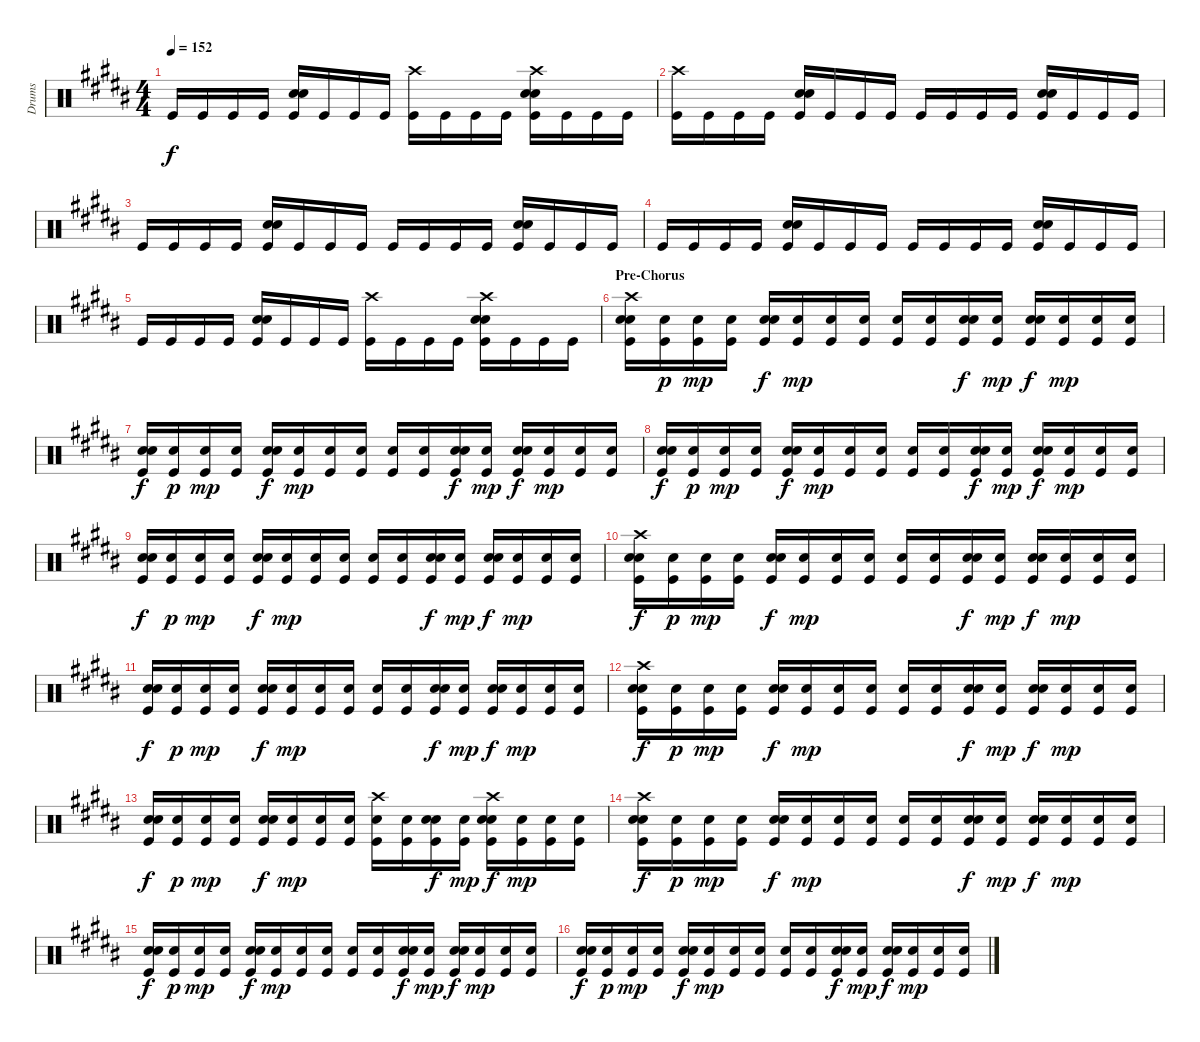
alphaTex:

\track ("Drums" "Drums") {instrument percussion}
\staff {score}
\articulation defaults
\ts (4 4)
\tempo 152
\clef neutral
\ks b "Kick (hit)".16{dy f} "Kick (hit)".16 "Kick (hit)".16 "Kick (hit)".16
("Snare (hit) 2" "Electric Snare (hit)" "Kick (hit)").16 "Kick (hit)".16 "Kick (hit)".16 "Kick (hit)".16 ("Crash high (hit)" "Kick (hit)").16 "Kick (hit)".16 "Kick (hit)".16 "Kick (hit)".16 ("Crash high (hit)" "Snare (hit) 2" "Electric Snare (hit)" "Kick (hit)").16 "Kick (hit)".16 "Kick (hit)".16 "Kick (hit)".16 |
("Crash high (hit)" "Kick (hit)").16 "Kick (hit)".16 "Kick (hit)".16 "Kick (hit)".16 ("Snare (hit) 2" "Electric Snare (hit)" "Kick (hit)").16 "Kick (hit)".16 "Kick (hit)".16 "Kick (hit)".16 "Kick (hit)".16 "Kick (hit)".16 "Kick (hit)".16 "Kick (hit)".16 ("Snare (hit) 2" "Electric Snare (hit)" "Kick (hit)").16 "Kick (hit)".16 "Kick (hit)".16 "Kick (hit)".16 |
"Kick (hit)".16 "Kick (hit)".16 "Kick (hit)".16 "Kick (hit)".16 ("Snare (hit) 2" "Electric Snare (hit)" "Kick (hit)").16 "Kick (hit)".16 "Kick (hit)".16 "Kick (hit)".16 "Kick (hit)".16 "Kick (hit)".16 "Kick (hit)".16 "Kick (hit)".16 ("Snare (hit) 2" "Electric Snare (hit)" "Kick (hit)").16 "Kick (hit)".16 "Kick (hit)".16 "Kick (hit)".16 |
"Kick (hit)".16 "Kick (hit)".16 "Kick (hit)".16 "Kick (hit)".16 ("Snare (hit) 2" "Electric Snare (hit)" "Kick (hit)").16 "Kick (hit)".16 "Kick (hit)".16 "Kick (hit)".16 "Kick (hit)".16 "Kick (hit)".16 "Kick (hit)".16 "Kick (hit)".16 ("Snare (hit) 2" "Electric Snare (hit)" "Kick (hit)").16 "Kick (hit)".16 "Kick (hit)".16 "Kick (hit)".16 |
"Kick (hit)".16 "Kick (hit)".16 "Kick (hit)".16 "Kick (hit)".16 ("Snare (hit) 2" "Electric Snare (hit)" "Kick (hit)").16 "Kick (hit)".16 "Kick (hit)".16 "Kick (hit)".16 ("Crash high (hit)" "Kick (hit)").16 "Kick (hit)".16 "Kick (hit)".16 "Kick (hit)".16 ("Crash high (hit)" "Snare (hit) 2" "Electric Snare (hit)" "Kick (hit)").16 "Kick (hit)".16 "Kick (hit)".16 "Kick (hit)".16 |
\section ("" "Pre-Chorus")
("Crash high (hit)" "Electric Snare (hit)" "Snare (hit) 2" "Kick (hit)").16 ("Snare (hit) 2" "Kick (hit)").16{dy p} ("Snare (hit) 2" "Kick (hit)").16{dy mp} ("Snare (hit) 2" "Kick (hit)").16 ("Electric Snare (hit)" "Snare (hit) 2" "Kick (hit)").16{dy f} ("Snare (hit) 2" "Kick (hit)").16{dy mp} ("Snare (hit) 2" "Kick (hit)").16 ("Snare (hit) 2" "Kick (hit)").16 ("Snare (hit) 2" "Kick (hit)").16 ("Snare (hit) 2" "Kick (hit)").16 ("Electric Snare (hit)" "Snare (hit) 2" "Kick (hit)").16{dy f} ("Snare (hit) 2" "Kick (hit)").16{dy mp} ("Electric Snare (hit)" "Snare (hit) 2" "Kick (hit)").16{dy f} ("Snare (hit) 2" "Kick (hit)").16{dy mp} ("Snare (hit) 2" "Kick (hit)").16 ("Snare (hit) 2" "Kick (hit)").16 |
("Electric Snare (hit)" "Snare (hit) 2" "Kick (hit)").16{dy f} ("Snare (hit) 2" "Kick (hit)").16{dy p} ("Snare (hit) 2" "Kick (hit)").16{dy mp} ("Snare (hit) 2" "Kick (hit)").16 ("Electric Snare (hit)" "Snare (hit) 2" "Kick (hit)").16{dy f} ("Snare (hit) 2" "Kick (hit)").16{dy mp} ("Snare (hit) 2" "Kick (hit)").16 ("Snare (hit) 2" "Kick (hit)").16 ("Snare (hit) 2" "Kick (hit)").16 ("Snare (hit) 2" "Kick (hit)").16 ("Electric Snare (hit)" "Snare (hit) 2" "Kick (hit)").16{dy f} ("Snare (hit) 2" "Kick (hit)").16{dy mp} ("Electric Snare (hit)" "Snare (hit) 2" "Kick (hit)").16{dy f} ("Snare (hit) 2" "Kick (hit)").16{dy mp} ("Snare (hit) 2" "Kick (hit)").16 ("Snare (hit) 2" "Kick (hit)").16 |
("Electric Snare (hit)" "Snare (hit) 2" "Kick (hit)").16{dy f} ("Snare (hit) 2" "Kick (hit)").16{dy p} ("Snare (hit) 2" "Kick (hit)").16{dy mp} ("Snare (hit) 2" "Kick (hit)").16 ("Electric Snare (hit)" "Snare (hit) 2" "Kick (hit)").16{dy f} ("Snare (hit) 2" "Kick (hit)").16{dy mp} ("Snare (hit) 2" "Kick (hit)").16 ("Snare (hit) 2" "Kick (hit)").16 ("Snare (hit) 2" "Kick (hit)").16 ("Snare (hit) 2" "Kick (hit)").16 ("Electric Snare (hit)" "Snare (hit) 2" "Kick (hit)").16{dy f} ("Snare (hit) 2" "Kick (hit)").16{dy mp} ("Electric Snare (hit)" "Snare (hit) 2" "Kick (hit)").16{dy f} ("Snare (hit) 2" "Kick (hit)").16{dy mp} ("Snare (hit) 2" "Kick (hit)").16 ("Snare (hit) 2" "Kick (hit)").16 |
("Electric Snare (hit)" "Snare (hit) 2" "Kick (hit)").16{dy f} ("Snare (hit) 2" "Kick (hit)").16{dy p} ("Snare (hit) 2" "Kick (hit)").16{dy mp} ("Snare (hit) 2" "Kick (hit)").16 ("Electric Snare (hit)" "Snare (hit) 2" "Kick (hit)").16{dy f} ("Snare (hit) 2" "Kick (hit)").16{dy mp} ("Snare (hit) 2" "Kick (hit)").16 ("Snare (hit) 2" "Kick (hit)").16 ("Snare (hit) 2" "Kick (hit)").16 ("Snare (hit) 2" "Kick (hit)").16 ("Electric Snare (hit)" "Snare (hit) 2" "Kick (hit)").16{dy f} ("Snare (hit) 2" "Kick (hit)").16{dy mp} ("Electric Snare (hit)" "Snare (hit) 2" "Kick (hit)").16{dy f} ("Snare (hit) 2" "Kick (hit)").16{dy mp} ("Snare (hit) 2" "Kick (hit)").16 ("Snare (hit) 2" "Kick (hit)").16 |
("Crash high (hit)" "Electric Snare (hit)" "Snare (hit) 2" "Kick (hit)").16{dy f} ("Snare (hit) 2" "Kick (hit)").16{dy p} ("Snare (hit) 2" "Kick (hit)").16{dy mp} ("Snare (hit) 2" "Kick (hit)").16 ("Electric Snare (hit)" "Snare (hit) 2" "Kick (hit)").16{dy f} ("Snare (hit) 2" "Kick (hit)").16{dy mp} ("Snare (hit) 2" "Kick (hit)").16 ("Snare (hit) 2" "Kick (hit)").16 ("Snare (hit) 2" "Kick (hit)").16 ("Snare (hit) 2" "Kick (hit)").16 ("Electric Snare (hit)" "Snare (hit) 2" "Kick (hit)").16{dy f} ("Snare (hit) 2" "Kick (hit)").16{dy mp} ("Electric Snare (hit)" "Snare (hit) 2" "Kick (hit)").16{dy f} ("Snare (hit) 2" "Kick (hit)").16{dy mp} ("Snare (hit) 2" "Kick (hit)").16 ("Snare (hit) 2" "Kick (hit)").16 |
("Electric Snare (hit)" "Snare (hit) 2" "Kick (hit)").16{dy f} ("Snare (hit) 2" "Kick (hit)").16{dy p} ("Snare (hit) 2" "Kick (hit)").16{dy mp} ("Snare (hit) 2" "Kick (hit)").16 ("Electric Snare (hit)" "Snare (hit) 2" "Kick (hit)").16{dy f} ("Snare (hit) 2" "Kick (hit)").16{dy mp} ("Snare (hit) 2" "Kick (hit)").16 ("Snare (hit) 2" "Kick (hit)").16 ("Snare (hit) 2" "Kick (hit)").16 ("Snare (hit) 2" "Kick (hit)").16 ("Electric Snare (hit)" "Snare (hit) 2" "Kick (hit)").16{dy f} ("Snare (hit) 2" "Kick (hit)").16{dy mp} ("Electric Snare (hit)" "Snare (hit) 2" "Kick (hit)").16{dy f} ("Snare (hit) 2" "Kick (hit)").16{dy mp} ("Snare (hit) 2" "Kick (hit)").16 ("Snare (hit) 2" "Kick (hit)").16 |
("Crash high (hit)" "Electric Snare (hit)" "Snare (hit) 2" "Kick (hit)").16{dy f} ("Snare (hit) 2" "Kick (hit)").16{dy p} ("Snare (hit) 2" "Kick (hit)").16{dy mp} ("Snare (hit) 2" "Kick (hit)").16 ("Electric Snare (hit)" "Snare (hit) 2" "Kick (hit)").16{dy f} ("Snare (hit) 2" "Kick (hit)").16{dy mp} ("Snare (hit) 2" "Kick (hit)").16 ("Snare (hit) 2" "Kick (hit)").16 ("Snare (hit) 2" "Kick (hit)").16 ("Snare (hit) 2" "Kick (hit)").16 ("Electric Snare (hit)" "Snare (hit) 2" "Kick (hit)").16{dy f} ("Snare (hit) 2" "Kick (hit)").16{dy mp} ("Electric Snare (hit)" "Snare (hit) 2" "Kick (hit)").16{dy f} ("Snare (hit) 2" "Kick (hit)").16{dy mp} ("Snare (hit) 2" "Kick (hit)").16 ("Snare (hit) 2" "Kick (hit)").16 |
("Electric Snare (hit)" "Snare (hit) 2" "Kick (hit)").16{dy f} ("Snare (hit) 2" "Kick (hit)").16{dy p} ("Snare (hit) 2" "Kick (hit)").16{dy mp} ("Snare (hit) 2" "Kick (hit)").16 ("Electric Snare (hit)" "Snare (hit) 2" "Kick (hit)").16{dy f} ("Snare (hit) 2" "Kick (hit)").16{dy mp} ("Snare (hit) 2" "Kick (hit)").16 ("Snare (hit) 2" "Kick (hit)").16 ("Crash high (hit)" "Snare (hit) 2" "Kick (hit)").16 ("Snare (hit) 2" "Kick (hit)").16 ("Electric Snare (hit)" "Snare (hit) 2" "Kick (hit)").16{dy f} ("Snare (hit) 2" "Kick (hit)").16{dy mp} ("Crash high (hit)" "Electric Snare (hit)" "Snare (hit) 2" "Kick (hit)").16{dy f} ("Snare (hit) 2" "Kick (hit)").16{dy mp} ("Snare (hit) 2" "Kick (hit)").16 ("Snare (hit) 2" "Kick (hit)").16 |
("Crash high (hit)" "Electric Snare (hit)" "Snare (hit) 2" "Kick (hit)").16{dy f} ("Snare (hit) 2" "Kick (hit)").16{dy p} ("Snare (hit) 2" "Kick (hit)").16{dy mp} ("Snare (hit) 2" "Kick (hit)").16 ("Electric Snare (hit)" "Snare (hit) 2" "Kick (hit)").16{dy f} ("Snare (hit) 2" "Kick (hit)").16{dy mp} ("Snare (hit) 2" "Kick (hit)").16 ("Snare (hit) 2" "Kick (hit)").16 ("Snare (hit) 2" "Kick (hit)").16 ("Snare (hit) 2" "Kick (hit)").16 ("Electric Snare (hit)" "Snare (hit) 2" "Kick (hit)").16{dy f} ("Snare (hit) 2" "Kick (hit)").16{dy mp} ("Electric Snare (hit)" "Snare (hit) 2" "Kick (hit)").16{dy f} ("Snare (hit) 2" "Kick (hit)").16{dy mp} ("Snare (hit) 2" "Kick (hit)").16 ("Snare (hit) 2" "Kick (hit)").16 |
("Electric Snare (hit)" "Snare (hit) 2" "Kick (hit)").16{dy f} ("Snare (hit) 2" "Kick (hit)").16{dy p} ("Snare (hit) 2" "Kick (hit)").16{dy mp} ("Snare (hit) 2" "Kick (hit)").16 ("Electric Snare (hit)" "Snare (hit) 2" "Kick (hit)").16{dy f} ("Snare (hit) 2" "Kick (hit)").16{dy mp} ("Snare (hit) 2" "Kick (hit)").16 ("Snare (hit) 2" "Kick (hit)").16 ("Snare (hit) 2" "Kick (hit)").16 ("Snare (hit) 2" "Kick (hit)").16 ("Electric Snare (hit)" "Snare (hit) 2" "Kick (hit)").16{dy f} ("Snare (hit) 2" "Kick (hit)").16{dy mp} ("Electric Snare (hit)" "Snare (hit) 2" "Kick (hit)").16{dy f} ("Snare (hit) 2" "Kick (hit)").16{dy mp} ("Snare (hit) 2" "Kick (hit)").16 ("Snare (hit) 2" "Kick (hit)").16 |
("Electric Snare (hit)" "Snare (hit) 2" "Kick (hit)").16{dy f} ("Snare (hit) 2" "Kick (hit)").16{dy p} ("Snare (hit) 2" "Kick (hit)").16{dy mp} ("Snare (hit) 2" "Kick (hit)").16 ("Electric Snare (hit)" "Snare (hit) 2" "Kick (hit)").16{dy f} ("Snare (hit) 2" "Kick (hit)").16{dy mp} ("Snare (hit) 2" "Kick (hit)").16 ("Snare (hit) 2" "Kick (hit)").16 ("Snare (hit) 2" "Kick (hit)").16 ("Snare (hit) 2" "Kick (hit)").16 ("Electric Snare (hit)" "Snare (hit) 2" "Kick (hit)").16{dy f} ("Snare (hit) 2" "Kick (hit)").16{dy mp} ("Electric Snare (hit)" "Snare (hit) 2" "Kick (hit)").16{dy f} ("Snare (hit) 2" "Kick (hit)").16{dy mp} ("Snare (hit) 2" "Kick (hit)").16 ("Snare (hit) 2" "Kick (hit)").16
